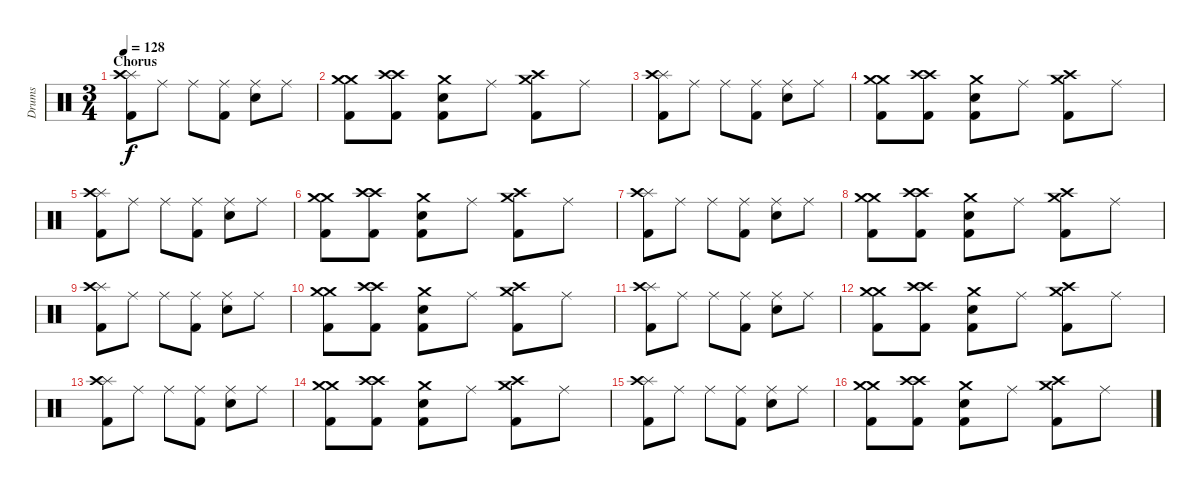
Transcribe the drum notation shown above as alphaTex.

\track ("Drums" "Drums") {instrument percussion}
\staff {score}
\articulation defaults
\ts (3 4)
\section ("" "Chorus")
\tempo 128
\clef neutral
\ks c
("Splash (hit)" "Crash high (hit)" "Kick (hit) 2").8{dy f} "Ride (middle)".8 "Ride (middle)".8 ("Ride (middle)" "Kick (hit) 2").8 ("Ride (middle)" "Snare (hit) 2").8 "Ride (middle)".8 |
("Crash medium (hit)" "Crash medium (hit)" "Kick (hit) 2").8 ("Crash high (hit)" "Crash high (hit)" "Kick (hit) 2").8 ("Crash medium (hit)" "Snare (hit) 2" "Kick (hit) 2").8 "Ride (middle)".8 ("Crash medium (hit)" "Crash high (hit)" "Kick (hit) 2").8 "Ride (middle)".8 |
("Splash (hit)" "Crash high (hit)" "Kick (hit) 2").8 "Ride (middle)".8 "Ride (middle)".8 ("Ride (middle)" "Kick (hit) 2").8 ("Ride (middle)" "Snare (hit) 2").8 "Ride (middle)".8 |
("Crash medium (hit)" "Crash medium (hit)" "Kick (hit) 2").8 ("Crash high (hit)" "Crash high (hit)" "Kick (hit) 2").8 ("Crash medium (hit)" "Snare (hit) 2" "Kick (hit) 2").8 "Ride (middle)".8 ("Crash medium (hit)" "Crash high (hit)" "Kick (hit) 2").8 "Ride (middle)".8 |
("Splash (hit)" "Crash high (hit)" "Kick (hit) 2").8 "Ride (middle)".8 "Ride (middle)".8 ("Ride (middle)" "Kick (hit) 2").8 ("Ride (middle)" "Snare (hit) 2").8 "Ride (middle)".8 |
("Crash medium (hit)" "Crash medium (hit)" "Kick (hit) 2").8 ("Crash high (hit)" "Crash high (hit)" "Kick (hit) 2").8 ("Crash medium (hit)" "Snare (hit) 2" "Kick (hit) 2").8 "Ride (middle)".8 ("Crash medium (hit)" "Crash high (hit)" "Kick (hit) 2").8 "Ride (middle)".8 |
("Splash (hit)" "Crash high (hit)" "Kick (hit) 2").8 "Ride (middle)".8 "Ride (middle)".8 ("Ride (middle)" "Kick (hit) 2").8 ("Ride (middle)" "Snare (hit) 2").8 "Ride (middle)".8 |
("Crash medium (hit)" "Crash medium (hit)" "Kick (hit) 2").8 ("Crash high (hit)" "Crash high (hit)" "Kick (hit) 2").8 ("Crash medium (hit)" "Snare (hit) 2" "Kick (hit) 2").8 "Ride (middle)".8 ("Crash medium (hit)" "Crash high (hit)" "Kick (hit) 2").8 "Ride (middle)".8 |
("Splash (hit)" "Crash high (hit)" "Kick (hit) 2").8 "Ride (middle)".8 "Ride (middle)".8 ("Ride (middle)" "Kick (hit) 2").8 ("Ride (middle)" "Snare (hit) 2").8 "Ride (middle)".8 |
("Crash medium (hit)" "Crash medium (hit)" "Kick (hit) 2").8 ("Crash high (hit)" "Crash high (hit)" "Kick (hit) 2").8 ("Crash medium (hit)" "Snare (hit) 2" "Kick (hit) 2").8 "Ride (middle)".8 ("Crash medium (hit)" "Crash high (hit)" "Kick (hit) 2").8 "Ride (middle)".8 |
("Splash (hit)" "Crash high (hit)" "Kick (hit) 2").8 "Ride (middle)".8 "Ride (middle)".8 ("Ride (middle)" "Kick (hit) 2").8 ("Ride (middle)" "Snare (hit) 2").8 "Ride (middle)".8 |
("Crash medium (hit)" "Crash medium (hit)" "Kick (hit) 2").8 ("Crash high (hit)" "Crash high (hit)" "Kick (hit) 2").8 ("Crash medium (hit)" "Snare (hit) 2" "Kick (hit) 2").8 "Ride (middle)".8 ("Crash medium (hit)" "Crash high (hit)" "Kick (hit) 2").8 "Ride (middle)".8 |
("Splash (hit)" "Crash high (hit)" "Kick (hit) 2").8 "Ride (middle)".8 "Ride (middle)".8 ("Ride (middle)" "Kick (hit) 2").8 ("Ride (middle)" "Snare (hit) 2").8 "Ride (middle)".8 |
("Crash medium (hit)" "Crash medium (hit)" "Kick (hit) 2").8 ("Crash high (hit)" "Crash high (hit)" "Kick (hit) 2").8 ("Crash medium (hit)" "Snare (hit) 2" "Kick (hit) 2").8 "Ride (middle)".8 ("Crash medium (hit)" "Crash high (hit)" "Kick (hit) 2").8 "Ride (middle)".8 |
("Splash (hit)" "Crash high (hit)" "Kick (hit) 2").8 "Ride (middle)".8 "Ride (middle)".8 ("Ride (middle)" "Kick (hit) 2").8 ("Ride (middle)" "Snare (hit) 2").8 "Ride (middle)".8 |
("Crash medium (hit)" "Crash medium (hit)" "Kick (hit) 2").8 ("Crash high (hit)" "Crash high (hit)" "Kick (hit) 2").8 ("Crash medium (hit)" "Snare (hit) 2" "Kick (hit) 2").8 "Ride (middle)".8 ("Crash medium (hit)" "Crash high (hit)" "Kick (hit) 2").8 "Ride (middle)".8
